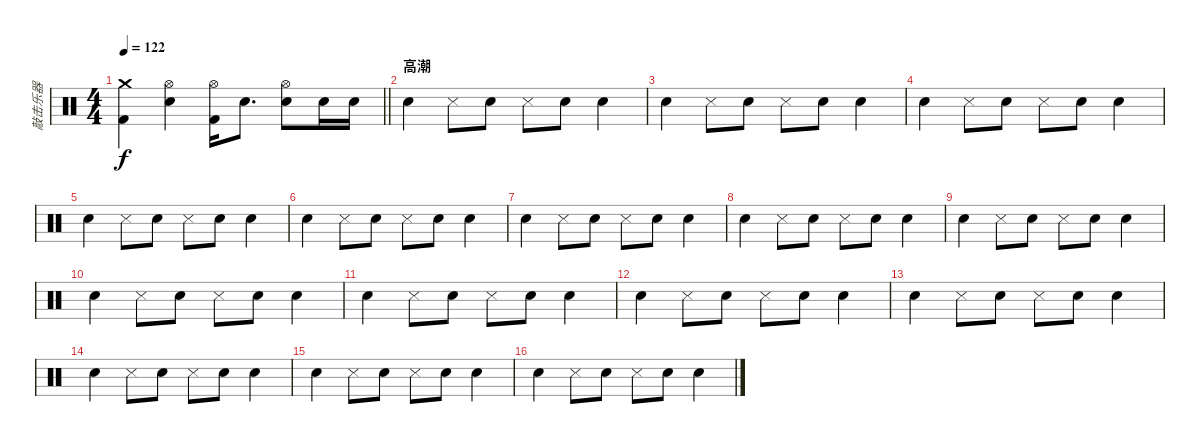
\track ("敲击乐器" "敲击乐器") {instrument percussion}
\staff {score}
\articulation defaults
\ts (4 4)
\tempo 122
\clef neutral
\barLineRight lightlight
\ks c
("Crash medium (hit)" "Kick (hit) 2").4{dy f} ("Hi-Hat (open)" "Snare (hit) 2").4 ("Hi-Hat (open)" "Kick (hit) 2").16 "Snare (hit) 2".8{d} ("Hi-Hat (open)" "Snare (hit) 2").8 "Snare (hit) 2".16 "Snare (hit) 2".16 |
\section ("" "高潮")
"Snare (hit) 2".4 "Snare (side stick) 3".8 "Snare (hit) 2".8 "Snare (side stick) 3".8 "Snare (hit) 2".8 "Snare (hit) 2".4 |
"Snare (hit) 2".4 "Snare (side stick) 3".8 "Snare (hit) 2".8 "Snare (side stick) 3".8 "Snare (hit) 2".8 "Snare (hit) 2".4 |
"Snare (hit) 2".4 "Snare (side stick) 3".8 "Snare (hit) 2".8 "Snare (side stick) 3".8 "Snare (hit) 2".8 "Snare (hit) 2".4 |
"Snare (hit) 2".4 "Snare (side stick) 3".8 "Snare (hit) 2".8 "Snare (side stick) 3".8 "Snare (hit) 2".8 "Snare (hit) 2".4 |
"Snare (hit) 2".4 "Snare (side stick) 3".8 "Snare (hit) 2".8 "Snare (side stick) 3".8 "Snare (hit) 2".8 "Snare (hit) 2".4 |
"Snare (hit) 2".4 "Snare (side stick) 3".8 "Snare (hit) 2".8 "Snare (side stick) 3".8 "Snare (hit) 2".8 "Snare (hit) 2".4 |
"Snare (hit) 2".4 "Snare (side stick) 3".8 "Snare (hit) 2".8 "Snare (side stick) 3".8 "Snare (hit) 2".8 "Snare (hit) 2".4 |
"Snare (hit) 2".4 "Snare (side stick) 3".8 "Snare (hit) 2".8 "Snare (side stick) 3".8 "Snare (hit) 2".8 "Snare (hit) 2".4 |
"Snare (hit) 2".4 "Snare (side stick) 3".8 "Snare (hit) 2".8 "Snare (side stick) 3".8 "Snare (hit) 2".8 "Snare (hit) 2".4 |
"Snare (hit) 2".4 "Snare (side stick) 3".8 "Snare (hit) 2".8 "Snare (side stick) 3".8 "Snare (hit) 2".8 "Snare (hit) 2".4 |
"Snare (hit) 2".4 "Snare (side stick) 3".8 "Snare (hit) 2".8 "Snare (side stick) 3".8 "Snare (hit) 2".8 "Snare (hit) 2".4 |
"Snare (hit) 2".4 "Snare (side stick) 3".8 "Snare (hit) 2".8 "Snare (side stick) 3".8 "Snare (hit) 2".8 "Snare (hit) 2".4 |
"Snare (hit) 2".4 "Snare (side stick) 3".8 "Snare (hit) 2".8 "Snare (side stick) 3".8 "Snare (hit) 2".8 "Snare (hit) 2".4 |
"Snare (hit) 2".4 "Snare (side stick) 3".8 "Snare (hit) 2".8 "Snare (side stick) 3".8 "Snare (hit) 2".8 "Snare (hit) 2".4 |
"Snare (hit) 2".4 "Snare (side stick) 3".8 "Snare (hit) 2".8 "Snare (side stick) 3".8 "Snare (hit) 2".8 "Snare (hit) 2".4
